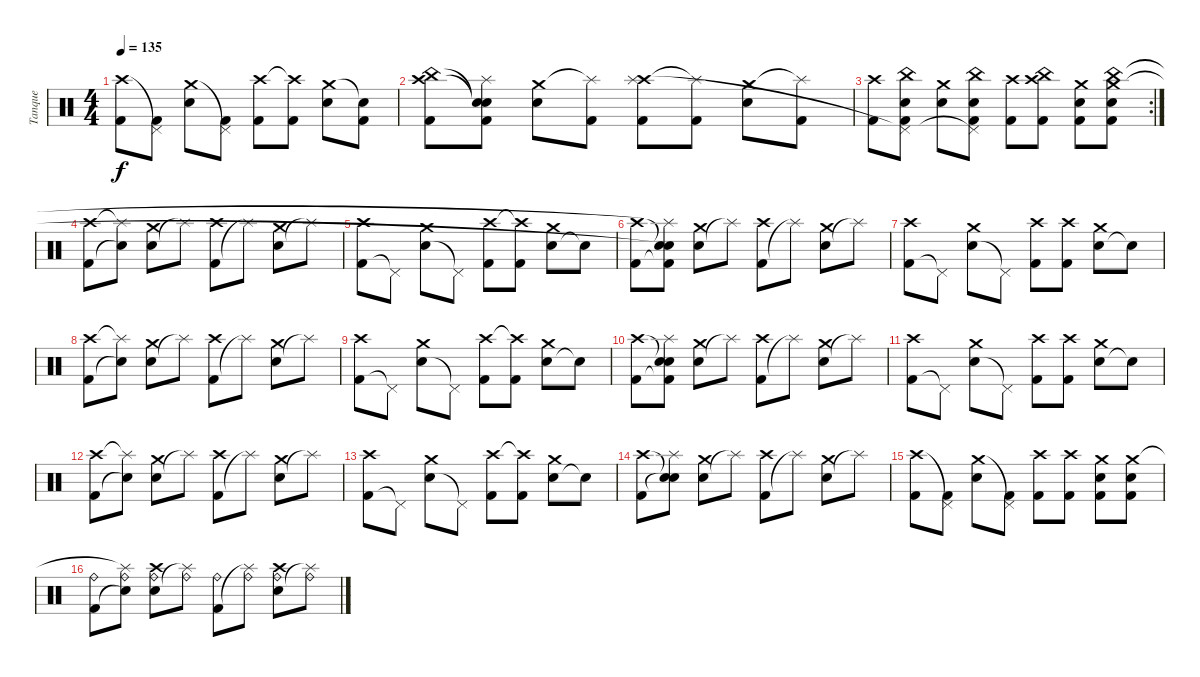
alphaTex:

\track ("Tanque" "Tanque") {instrument percussion}
\staff {score}
\articulation defaults
\ts (4 4)
\tempo 135
\clef neutral
\ks c
("Kick (hit) 2" "Crash high (hit)").8{dy f} ("Kick (hit) 2" "Pedal Hi-Hat (hit)"{t}).8 ("Snare (hit) 2" "Crash medium (hit)").8 ("Kick (hit) 2" "Pedal Hi-Hat (hit)"{t}).8 ("Kick (hit) 2" "Crash high (hit)").8 ("Kick (hit) 2" "Crash high (hit)"{t}).8 ("Snare (hit) 2" "Crash medium (hit)").8 ("Kick (hit) 2" "Snare (hit)"{t}).8 |
("Kick (hit) 2" "Crash high (hit)" "China (hit)").8 ("Kick (hit) 2" "Snare (hit)"{t} "Snare (hit)"{t} "Splash (hit)"{t}).8 ("Snare (hit) 2" "Crash medium (hit)").8 ("Kick (hit) 2" "Splash (hit)"{t}).8 ("Kick (hit) 2" "Crash high (hit)" "Splash (hit)").8 ("Kick (hit) 2" "Splash (hit)"{t}).8 ("Snare (hit) 2" "Crash medium (hit)").8 ("Kick (hit) 2" "Splash (hit)"{t}).8 |
\rc 2
("Kick (hit) 2" "Crash high (hit)").8 ("Kick (hit) 2" "Snare (hit) 2" "Pedal Hi-Hat (hit)"{t} "China (hit)").8 ("Snare (hit) 2" "Crash medium (hit)").8 ("Kick (hit) 2" "Snare (hit) 2" "Pedal Hi-Hat (hit)"{t} "China (hit)").8 ("Kick (hit) 2" "Crash high (hit)").8 ("Kick (hit) 2" "Crash high (hit)" "China (hit)").8 ("Kick (hit) 2" "Snare (hit) 2" "Crash medium (hit)").8 ("Kick (hit) 2" "Snare (hit) 2" "Crash medium (hit)" "China (hit)").8 |
("Kick (hit) 2" "Crash high (hit)").8 ("Snare (hit)"{t} "Splash (hit)"{t}).8 ("Snare (hit) 2" "Crash medium (hit)").8 "Splash (hit)"{t}.8 ("Kick (hit) 2" "Crash high (hit)").8 "Splash (hit)"{t}.8 ("Snare (hit) 2" "Crash medium (hit)").8 "Splash (hit)"{t}.8 |
("Kick (hit) 2" "Crash high (hit)").8 "Pedal Hi-Hat (hit)"{t}.8 ("Snare (hit) 2" "Crash medium (hit)").8 "Pedal Hi-Hat (hit)"{t}.8 ("Kick (hit) 2" "Crash high (hit)").8 ("Kick (hit) 2" "Crash high (hit)"{t}).8 ("Snare (hit) 2" "Crash medium (hit)").8 "Snare (hit)"{t}.8 |
("Kick (hit) 2" "Crash high (hit)").8 ("Kick (hit) 2"{t} "Snare (hit)"{t} "Snare (hit)"{t} "Splash (hit)"{t}).8 ("Snare (hit) 2" "Crash medium (hit)").8 "Splash (hit)"{t}.8 ("Kick (hit) 2" "Crash high (hit)").8 "Splash (hit)"{t}.8 ("Snare (hit) 2" "Crash medium (hit)").8 "Splash (hit)"{t}.8 |
("Kick (hit) 2" "Crash high (hit)").8 "Pedal Hi-Hat (hit)"{t}.8 ("Snare (hit) 2" "Crash medium (hit)").8 "Pedal Hi-Hat (hit)"{t}.8 ("Kick (hit) 2" "Crash high (hit)").8 ("Kick (hit) 2" "Crash high (hit)").8 ("Snare (hit) 2" "Crash medium (hit)").8 "Snare (hit)"{t}.8 |
("Kick (hit) 2" "Crash high (hit)").8 ("Snare (hit)"{t} "Splash (hit)"{t}).8 ("Snare (hit) 2" "Crash medium (hit)").8 "Splash (hit)"{t}.8 ("Kick (hit) 2" "Crash high (hit)").8 "Splash (hit)"{t}.8 ("Snare (hit) 2" "Crash medium (hit)").8 "Splash (hit)"{t}.8 |
("Kick (hit) 2" "Crash high (hit)").8 "Pedal Hi-Hat (hit)"{t}.8 ("Snare (hit) 2" "Crash medium (hit)").8 "Pedal Hi-Hat (hit)"{t}.8 ("Kick (hit) 2" "Crash high (hit)").8 ("Kick (hit) 2" "Crash high (hit)"{t}).8 ("Snare (hit) 2" "Crash medium (hit)").8 "Snare (hit)"{t}.8 |
("Kick (hit) 2" "Crash high (hit)").8 ("Kick (hit) 2"{t} "Snare (hit)"{t} "Snare (hit)" "Splash (hit)").8 ("Snare (hit) 2" "Crash medium (hit)").8 "Splash (hit)"{t}.8 ("Kick (hit) 2" "Crash high (hit)").8 "Splash (hit)"{t}.8 ("Snare (hit) 2" "Crash medium (hit)").8 "Splash (hit)"{t}.8 |
("Kick (hit) 2" "Crash high (hit)").8 "Pedal Hi-Hat (hit)"{t}.8 ("Snare (hit) 2" "Crash medium (hit)").8 "Pedal Hi-Hat (hit)"{t}.8 ("Kick (hit) 2" "Crash high (hit)").8 ("Kick (hit) 2" "Crash high (hit)").8 ("Snare (hit) 2" "Crash medium (hit)").8 "Snare (hit)"{t}.8 |
("Kick (hit) 2" "Crash high (hit)").8 ("Snare (hit)"{t} "Splash (hit)"{t}).8 ("Snare (hit) 2" "Crash medium (hit)").8 "Splash (hit)"{t}.8 ("Kick (hit) 2" "Crash high (hit)").8 "Splash (hit)"{t}.8 ("Snare (hit) 2" "Crash medium (hit)").8 "Splash (hit)"{t}.8 |
("Kick (hit) 2" "Crash high (hit)").8 "Pedal Hi-Hat (hit)"{t}.8 ("Snare (hit) 2" "Crash medium (hit)").8 "Pedal Hi-Hat (hit)"{t}.8 ("Kick (hit) 2" "Crash high (hit)").8 ("Kick (hit) 2" "Crash high (hit)"{t}).8 ("Snare (hit) 2" "Crash medium (hit)").8 "Snare (hit)"{t}.8 |
("Kick (hit) 2" "Crash high (hit)").8 ("Snare (hit)"{t} "Snare (hit)"{t} "Splash (hit)").8 ("Snare (hit) 2" "Crash medium (hit)").8 "Splash (hit)"{t}.8 ("Kick (hit) 2" "Crash high (hit)").8 "Splash (hit)"{t}.8 ("Snare (hit) 2" "Crash medium (hit)").8 "Splash (hit)"{t}.8 |
("Kick (hit) 2" "Crash high (hit)").8 ("Kick (hit) 2" "Pedal Hi-Hat (hit)"{t}).8 ("Snare (hit) 2" "Crash medium (hit)").8 ("Kick (hit) 2" "Pedal Hi-Hat (hit)"{t}).8 ("Kick (hit) 2" "Crash high (hit)").8 ("Kick (hit) 2" "Crash high (hit)").8 ("Kick (hit) 2" "Snare (hit) 2" "Crash medium (hit)").8 ("Kick (hit) 2" "Snare (hit) 2" "Crash medium (hit)").8 |
("Ride (bell)" "Kick (hit) 2").8 ("Ride (bell)" "Snare (hit)"{t} "Splash (hit)"{t}).8 ("Ride (bell)" "Snare (hit) 2" "Crash high (hit)").8 ("Ride (bell)" "Splash (hit)"{t}).8 ("Ride (bell)" "Kick (hit) 2").8 ("Ride (bell)" "Splash (hit)"{t}).8 ("Ride (bell)" "Snare (hit) 2" "Crash high (hit)").8 ("Ride (bell)" "Splash (hit)"{t}).8
